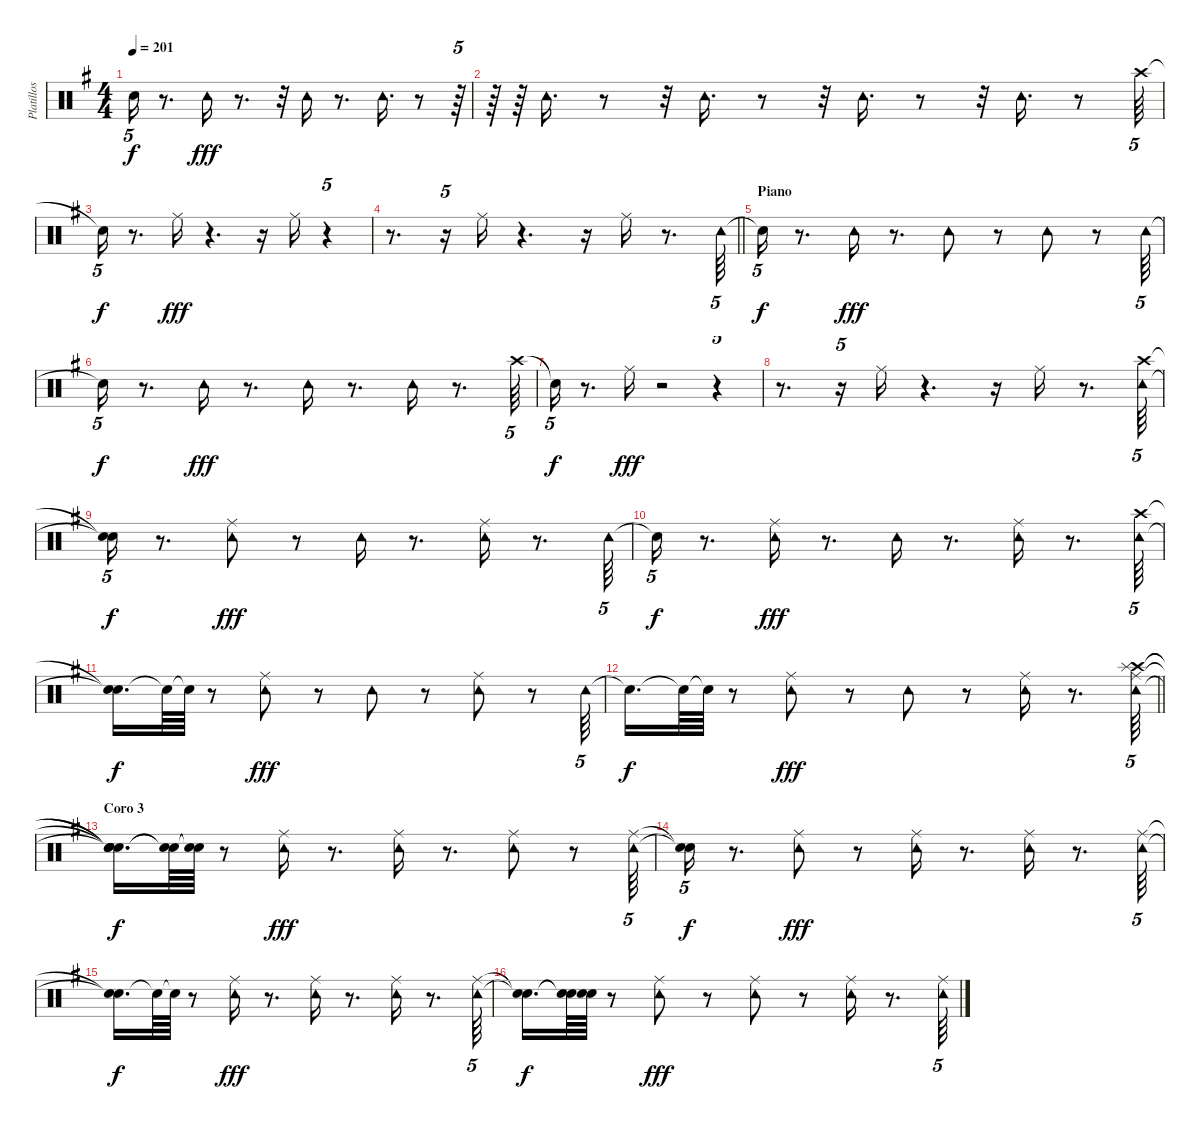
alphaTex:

\track ("Platillos y pandero" "Platillos ") {instrument percussion}
\staff {score}
\articulation defaults
\ts (4 4)
\tempo 201
\clef neutral
\ks g "Snare (hit)"{t}.16{tu (5 4) dy f}
r.8{d} "Tambourine (hit)".16{dy fff} r.8{d} r.32 "Tambourine (hit)".16 r.8{d} "Tambourine (hit)".16{d} r.8 r.64{tu (5 4)} |
r.64 r.64 "Tambourine (hit)".16{d} r.8 r.32 "Tambourine (hit)".16{d} r.8 r.32 "Tambourine (hit)".16{d} r.8 r.32 "Tambourine (hit)".16{d} r.8 "Crash high (hit)".64{tu (5 4)} |
"Snare (hit)"{t}.16{tu (5 4) dy f} r.8{d} "Ride (middle)".16{dy fff} r.4{d} r.16 "Ride (middle)".16 r.4{tu (5 4)} |
\barLineRight lightlight
r.8{d} r.16{tu (5 4)} "Ride (middle)".16 r.4{d} r.16 "Ride (middle)".16 r.8{d} "Tambourine (hit)".64{tu (5 4)} |
\section ("" "Piano")
"Snare (hit)"{t}.16{tu (5 4) dy f} r.8{d} "Tambourine (hit)".16{dy fff} r.8{d} "Tambourine (hit)".8 r.8 "Tambourine (hit)".8 r.8 "Tambourine (hit)".64{tu (5 4)} |
"Snare (hit)"{t}.16{tu (5 4) dy f} r.8{d} "Tambourine (hit)".16{dy fff} r.8{d} "Tambourine (hit)".16 r.8{d} "Tambourine (hit)".16 r.8{d} "Crash high (hit)".64{tu (5 4)} |
"Snare (hit)"{t}.16{tu (5 4) dy f} r.8{d} "Ride (middle)".16{dy fff} r.2 r.4{tu (5 4)} |
r.8{d} r.16{tu (5 4)} "Ride (middle)".16 r.4{d} r.16 "Ride (middle)".16 r.8{d} ("Crash high (hit)" "Tambourine (hit)").64{tu (5 4)} |
("Snare (hit)"{t} "Snare (hit)"{t}).16{tu (5 4) dy f} r.8{d} ("Tambourine (hit)" "Ride (middle)").8{dy fff} r.8 "Tambourine (hit)".16 r.8{d} ("Ride (middle)" "Tambourine (hit)").16 r.8{d} "Tambourine (hit)".64{tu (5 4)} |
"Snare (hit)"{t}.16{tu (5 4) dy f} r.8{d} ("Tambourine (hit)" "Ride (middle)").16{dy fff} r.8{d} "Tambourine (hit)".16 r.8{d} ("Tambourine (hit)" "Ride (middle)").16 r.8{d} ("Crash high (hit)" "Tambourine (hit)").64{tu (5 4)} |
("Snare (hit)"{t} "Snare (hit)"{t}).16{d dy f} "Snare (hit)"{t}.64 "Snare (hit)"{t}.64 r.8 ("Ride (middle)" "Tambourine (hit)").8{dy fff} r.8 "Tambourine (hit)".8 r.8 ("Ride (middle)" "Tambourine (hit)").8 r.8 "Tambourine (hit)".64{tu (5 4)} |
\barLineRight lightlight "Snare (hit)"{t}.16{d dy f} "Snare (hit)"{t}.64 "Snare (hit)"{t}.64
r.8 ("Ride (middle)" "Tambourine (hit)").8{dy fff} r.8 "Tambourine (hit)".8 r.8 ("Tambourine (hit)" "Ride (middle)").16 r.8{d} ("Crash high (hit)" "Splash (hit)" "Ride (middle)" "Tambourine (hit)").64{tu (5 4)} |
\section ("" "Coro 3")
("Snare (hit)"{t} "Snare (hit)"{t} "Snare (hit)"{t} "Snare (hit)"{t}).16{d dy f} ("Snare (hit)"{t} "Snare (hit)"{t}).64 ("Snare (hit)"{t} "Snare (hit)"{t}).64 r.8 ("Tambourine (hit)" "Ride (middle)").16{dy fff} r.8{d} ("Tambourine (hit)" "Ride (middle)").16 r.8{d} ("Tambourine (hit)" "Ride (middle)").8 r.8 ("Tambourine (hit)" "Ride (middle)").64{tu (5 4)} |
("Snare (hit)"{t} "Snare (hit)"{t}).16{tu (5 4) dy f} r.8{d} ("Tambourine (hit)" "Ride (middle)").8{dy fff} r.8 ("Ride (middle)" "Tambourine (hit)").16 r.8{d} ("Tambourine (hit)" "Ride (middle)").16 r.8{d} ("Ride (middle)" "Tambourine (hit)").64{tu (5 4)} |
("Snare (hit)"{t} "Snare (hit)"{t}).16{d dy f} "Snare (hit)"{t}.64 "Snare (hit)"{t}.64 r.8 ("Ride (middle)" "Tambourine (hit)").16{dy fff} r.8{d} ("Ride (middle)" "Tambourine (hit)").16 r.8{d} ("Ride (middle)" "Tambourine (hit)").16 r.8{d} ("Tambourine (hit)" "Ride (middle)").64{tu (5 4)} |
("Snare (hit)"{t} "Snare (hit)"{t}).16{d dy f} ("Snare (hit)"{t} "Snare (hit)"{t}).64 ("Snare (hit)"{t} "Snare (hit)"{t}).64 r.8 ("Tambourine (hit)" "Ride (middle)").8{dy fff} r.8 ("Tambourine (hit)" "Ride (middle)").8 r.8 ("Ride (middle)" "Tambourine (hit)").16 r.8{d} ("Tambourine (hit)" "Ride (middle)").64{tu (5 4)}
